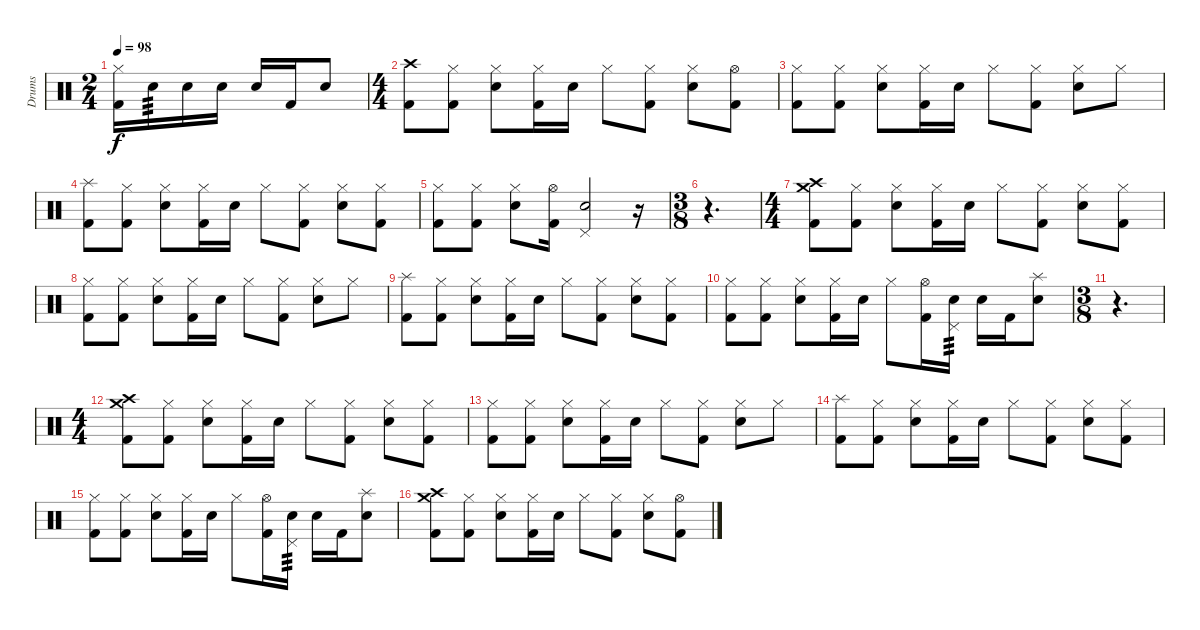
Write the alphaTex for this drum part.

\track ("Drums" "Drums") {instrument percussion}
\staff {score}
\articulation defaults
\ts (2 4)
\tempo 98
\clef neutral
\ks c
("Hi-Hat (closed)" "Kick (hit) 2").16{dy f} "Snare (hit) 2".16{tp 3} "Snare (hit) 2".16 "Snare (hit) 2".16 "Snare (hit) 2".16 "Kick (hit) 2".16 "Snare (hit) 2".8 |
\ts (4 4)
("Crash high (hit)" "Kick (hit) 2").8 ("Hi-Hat (closed)" "Kick (hit) 2").8 ("Hi-Hat (closed)" "Snare (hit) 2").8 ("Hi-Hat (closed)" "Kick (hit) 2").16 "Snare (hit) 2".16 "Hi-Hat (closed)".8 ("Hi-Hat (closed)" "Kick (hit) 2").8 ("Hi-Hat (closed)" "Snare (hit) 2").8 ("Hi-Hat (open)" "Kick (hit) 2").8 |
("Hi-Hat (closed)" "Kick (hit) 2").8 ("Hi-Hat (closed)" "Kick (hit) 2").8 ("Hi-Hat (closed)" "Snare (hit) 2").8 ("Hi-Hat (closed)" "Kick (hit) 2").16 "Snare (hit) 2".16 "Hi-Hat (closed)".8 ("Hi-Hat (closed)" "Kick (hit) 2").8 ("Hi-Hat (closed)" "Snare (hit) 2").8 "Hi-Hat (closed)".8 |
("Splash (hit)" "Kick (hit) 2").8 ("Hi-Hat (closed)" "Kick (hit) 2").8 ("Hi-Hat (closed)" "Snare (hit) 2").8 ("Hi-Hat (closed)" "Kick (hit) 2").16 "Snare (hit) 2".16 "Hi-Hat (closed)".8 ("Hi-Hat (closed)" "Kick (hit) 2").8 ("Hi-Hat (closed)" "Snare (hit) 2").8 ("Hi-Hat (closed)" "Kick (hit) 2").8 |
("Hi-Hat (closed)" "Kick (hit) 2").8 ("Hi-Hat (closed)" "Kick (hit) 2").8 ("Hi-Hat (closed)" "Snare (hit) 2").8 ("Hi-Hat (open)" "Kick (hit) 2").16 ("Pedal Hi-Hat (hit)" "Snare (hit) 2").2 r.16 |
\ts (3 8)
r.4{d} |
\ts (4 4)
("Crash high (hit)" "Crash medium (hit)" "Kick (hit) 2").8 ("Hi-Hat (closed)" "Kick (hit) 2").8 ("Hi-Hat (closed)" "Snare (hit) 2").8 ("Hi-Hat (closed)" "Kick (hit) 2").16 "Snare (hit) 2".16 "Hi-Hat (closed)".8 ("Hi-Hat (closed)" "Kick (hit) 2").8 ("Hi-Hat (closed)" "Snare (hit) 2").8 ("Hi-Hat (closed)" "Kick (hit) 2").8 |
("Hi-Hat (closed)" "Kick (hit) 2").8 ("Hi-Hat (closed)" "Kick (hit) 2").8 ("Hi-Hat (closed)" "Snare (hit) 2").8 ("Hi-Hat (closed)" "Kick (hit) 2").16 "Snare (hit) 2".16 "Hi-Hat (closed)".8 ("Hi-Hat (closed)" "Kick (hit) 2").8 ("Hi-Hat (closed)" "Snare (hit) 2").8 "Hi-Hat (closed)".8 |
("Splash (hit)" "Kick (hit) 2").8 ("Hi-Hat (closed)" "Kick (hit) 2").8 ("Hi-Hat (closed)" "Snare (hit) 2").8 ("Hi-Hat (closed)" "Kick (hit) 2").16 "Snare (hit) 2".16 "Hi-Hat (closed)".8 ("Hi-Hat (closed)" "Kick (hit) 2").8 ("Hi-Hat (closed)" "Snare (hit) 2").8 ("Hi-Hat (closed)" "Kick (hit) 2").8 |
("Hi-Hat (closed)" "Kick (hit) 2").8 ("Hi-Hat (closed)" "Kick (hit) 2").8 ("Hi-Hat (closed)" "Snare (hit) 2").8 ("Hi-Hat (closed)" "Kick (hit) 2").16 "Snare (hit) 2".16 "Hi-Hat (closed)".8 ("Hi-Hat (open)" "Kick (hit) 2").16 ("Pedal Hi-Hat (hit)" "Snare (hit) 2").16{tp 3} "Snare (hit) 2".16 "Kick (hit) 2".16 ("Splash (hit)" "Snare (hit) 2").8 |
\ts (3 8)
r.4{d} |
\ts (4 4)
("Crash high (hit)" "Crash medium (hit)" "Kick (hit) 2").8 ("Hi-Hat (closed)" "Kick (hit) 2").8 ("Hi-Hat (closed)" "Snare (hit) 2").8 ("Hi-Hat (closed)" "Kick (hit) 2").16 "Snare (hit) 2".16 "Hi-Hat (closed)".8 ("Hi-Hat (closed)" "Kick (hit) 2").8 ("Hi-Hat (closed)" "Snare (hit) 2").8 ("Hi-Hat (closed)" "Kick (hit) 2").8 |
("Hi-Hat (closed)" "Kick (hit) 2").8 ("Hi-Hat (closed)" "Kick (hit) 2").8 ("Hi-Hat (closed)" "Snare (hit) 2").8 ("Hi-Hat (closed)" "Kick (hit) 2").16 "Snare (hit) 2".16 "Hi-Hat (closed)".8 ("Hi-Hat (closed)" "Kick (hit) 2").8 ("Hi-Hat (closed)" "Snare (hit) 2").8 "Hi-Hat (closed)".8 |
("Splash (hit)" "Kick (hit) 2").8 ("Hi-Hat (closed)" "Kick (hit) 2").8 ("Hi-Hat (closed)" "Snare (hit) 2").8 ("Hi-Hat (closed)" "Kick (hit) 2").16 "Snare (hit) 2".16 "Hi-Hat (closed)".8 ("Hi-Hat (closed)" "Kick (hit) 2").8 ("Hi-Hat (closed)" "Snare (hit) 2").8 ("Hi-Hat (closed)" "Kick (hit) 2").8 |
("Hi-Hat (closed)" "Kick (hit) 2").8 ("Hi-Hat (closed)" "Kick (hit) 2").8 ("Hi-Hat (closed)" "Snare (hit) 2").8 ("Hi-Hat (closed)" "Kick (hit) 2").16 "Snare (hit) 2".16 "Hi-Hat (closed)".8 ("Hi-Hat (open)" "Kick (hit) 2").16 ("Pedal Hi-Hat (hit)" "Snare (hit) 2").16{tp 3} "Snare (hit) 2".16 "Kick (hit) 2".16 ("Splash (hit)" "Snare (hit) 2").8 |
("Crash high (hit)" "Crash medium (hit)" "Kick (hit) 2").8 ("Hi-Hat (closed)" "Kick (hit) 2").8 ("Hi-Hat (closed)" "Snare (hit) 2").8 ("Hi-Hat (closed)" "Kick (hit) 2").16 "Snare (hit) 2".16 "Hi-Hat (closed)".8 ("Hi-Hat (closed)" "Kick (hit) 2").8 ("Hi-Hat (closed)" "Snare (hit) 2").8 ("Hi-Hat (open)" "Kick (hit) 2").8
